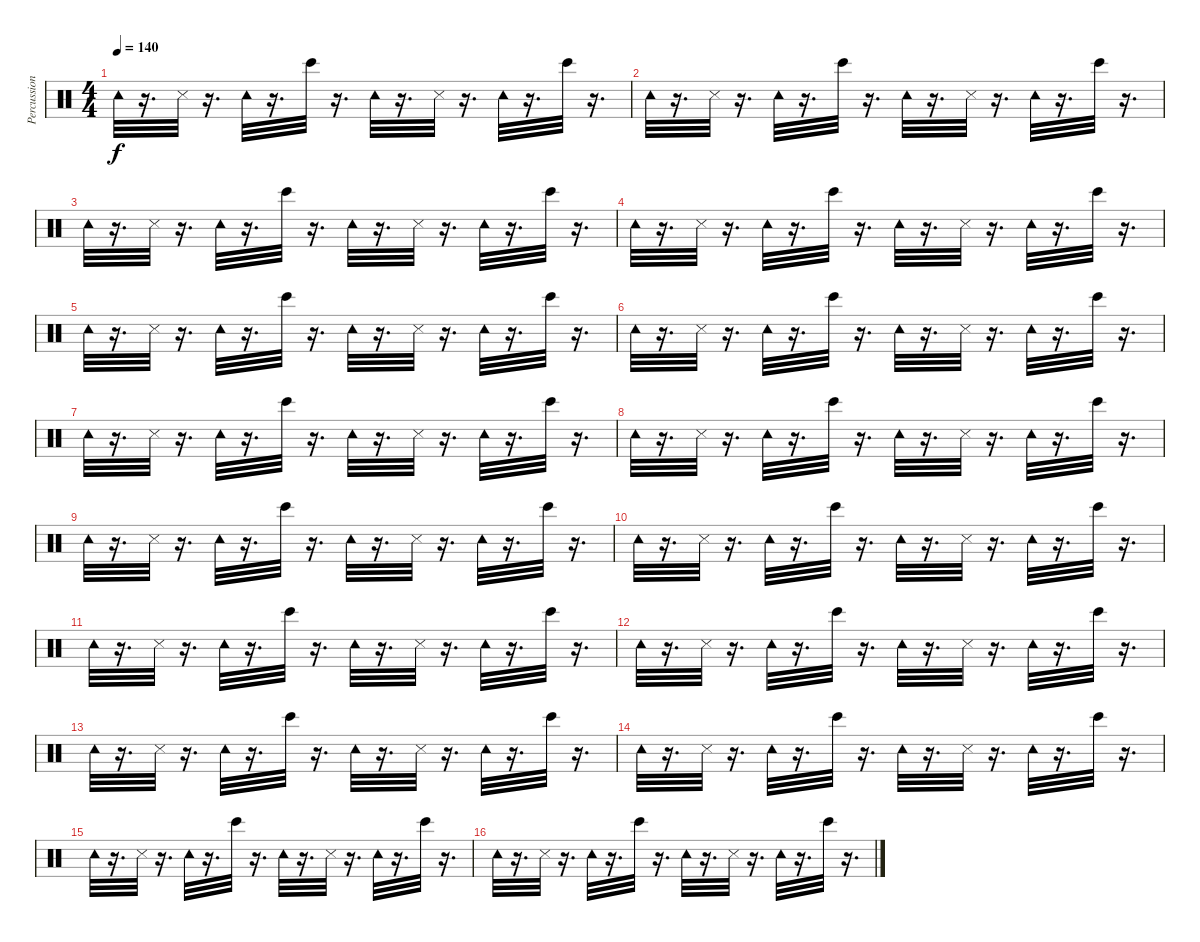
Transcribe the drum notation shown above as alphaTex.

\track ("Percussion" "Percussion") {instrument percussion}
\staff {score}
\articulation defaults
\ts (4 4)
\tempo 140
\clef neutral
\ks c "Tambourine (hit)".32{dy f}
r.16{d} "Metronome (hit)".32 r.16{d} "Tambourine (hit)".32 r.16{d} "Bongo High (hit)".32 r.16{d} "Tambourine (hit)".32 r.16{d} "Metronome (hit)".32 r.16{d} "Tambourine (hit)".32 r.16{d} "Bongo High (hit)".32 r.16{d} |
"Tambourine (hit)".32 r.16{d} "Metronome (hit)".32 r.16{d} "Tambourine (hit)".32 r.16{d} "Bongo High (hit)".32 r.16{d} "Tambourine (hit)".32 r.16{d} "Metronome (hit)".32 r.16{d} "Tambourine (hit)".32 r.16{d} "Bongo High (hit)".32 r.16{d} |
"Tambourine (hit)".32 r.16{d} "Metronome (hit)".32 r.16{d} "Tambourine (hit)".32 r.16{d} "Bongo High (hit)".32 r.16{d} "Tambourine (hit)".32 r.16{d} "Metronome (hit)".32 r.16{d} "Tambourine (hit)".32 r.16{d} "Bongo High (hit)".32 r.16{d} |
"Tambourine (hit)".32 r.16{d} "Metronome (hit)".32 r.16{d} "Tambourine (hit)".32 r.16{d} "Bongo High (hit)".32 r.16{d} "Tambourine (hit)".32 r.16{d} "Metronome (hit)".32 r.16{d} "Tambourine (hit)".32 r.16{d} "Bongo High (hit)".32 r.16{d} |
"Tambourine (hit)".32 r.16{d} "Metronome (hit)".32 r.16{d} "Tambourine (hit)".32 r.16{d} "Bongo High (hit)".32 r.16{d} "Tambourine (hit)".32 r.16{d} "Metronome (hit)".32 r.16{d} "Tambourine (hit)".32 r.16{d} "Bongo High (hit)".32 r.16{d} |
"Tambourine (hit)".32 r.16{d} "Metronome (hit)".32 r.16{d} "Tambourine (hit)".32 r.16{d} "Bongo High (hit)".32 r.16{d} "Tambourine (hit)".32 r.16{d} "Metronome (hit)".32 r.16{d} "Tambourine (hit)".32 r.16{d} "Bongo High (hit)".32 r.16{d} |
"Tambourine (hit)".32 r.16{d} "Metronome (hit)".32 r.16{d} "Tambourine (hit)".32 r.16{d} "Bongo High (hit)".32 r.16{d} "Tambourine (hit)".32 r.16{d} "Metronome (hit)".32 r.16{d} "Tambourine (hit)".32 r.16{d} "Bongo High (hit)".32 r.16{d} |
"Tambourine (hit)".32 r.16{d} "Metronome (hit)".32 r.16{d} "Tambourine (hit)".32 r.16{d} "Bongo High (hit)".32 r.16{d} "Tambourine (hit)".32 r.16{d} "Metronome (hit)".32 r.16{d} "Tambourine (hit)".32 r.16{d} "Bongo High (hit)".32 r.16{d} |
"Tambourine (hit)".32 r.16{d} "Metronome (hit)".32 r.16{d} "Tambourine (hit)".32 r.16{d} "Bongo High (hit)".32 r.16{d} "Tambourine (hit)".32 r.16{d} "Metronome (hit)".32 r.16{d} "Tambourine (hit)".32 r.16{d} "Bongo High (hit)".32 r.16{d} |
"Tambourine (hit)".32 r.16{d} "Metronome (hit)".32 r.16{d} "Tambourine (hit)".32 r.16{d} "Bongo High (hit)".32 r.16{d} "Tambourine (hit)".32 r.16{d} "Metronome (hit)".32 r.16{d} "Tambourine (hit)".32 r.16{d} "Bongo High (hit)".32 r.16{d} |
"Tambourine (hit)".32 r.16{d} "Metronome (hit)".32 r.16{d} "Tambourine (hit)".32 r.16{d} "Bongo High (hit)".32 r.16{d} "Tambourine (hit)".32 r.16{d} "Metronome (hit)".32 r.16{d} "Tambourine (hit)".32 r.16{d} "Bongo High (hit)".32 r.16{d} |
"Tambourine (hit)".32 r.16{d} "Metronome (hit)".32 r.16{d} "Tambourine (hit)".32 r.16{d} "Bongo High (hit)".32 r.16{d} "Tambourine (hit)".32 r.16{d} "Metronome (hit)".32 r.16{d} "Tambourine (hit)".32 r.16{d} "Bongo High (hit)".32 r.16{d} |
"Tambourine (hit)".32 r.16{d} "Metronome (hit)".32 r.16{d} "Tambourine (hit)".32 r.16{d} "Bongo High (hit)".32 r.16{d} "Tambourine (hit)".32 r.16{d} "Metronome (hit)".32 r.16{d} "Tambourine (hit)".32 r.16{d} "Bongo High (hit)".32 r.16{d} |
"Tambourine (hit)".32 r.16{d} "Metronome (hit)".32 r.16{d} "Tambourine (hit)".32 r.16{d} "Bongo High (hit)".32 r.16{d} "Tambourine (hit)".32 r.16{d} "Metronome (hit)".32 r.16{d} "Tambourine (hit)".32 r.16{d} "Bongo High (hit)".32 r.16{d} |
"Tambourine (hit)".32 r.16{d} "Metronome (hit)".32 r.16{d} "Tambourine (hit)".32 r.16{d} "Bongo High (hit)".32 r.16{d} "Tambourine (hit)".32 r.16{d} "Metronome (hit)".32 r.16{d} "Tambourine (hit)".32 r.16{d} "Bongo High (hit)".32 r.16{d} |
"Tambourine (hit)".32 r.16{d} "Metronome (hit)".32 r.16{d} "Tambourine (hit)".32 r.16{d} "Bongo High (hit)".32 r.16{d} "Tambourine (hit)".32 r.16{d} "Metronome (hit)".32 r.16{d} "Tambourine (hit)".32 r.16{d} "Bongo High (hit)".32 r.16{d}
